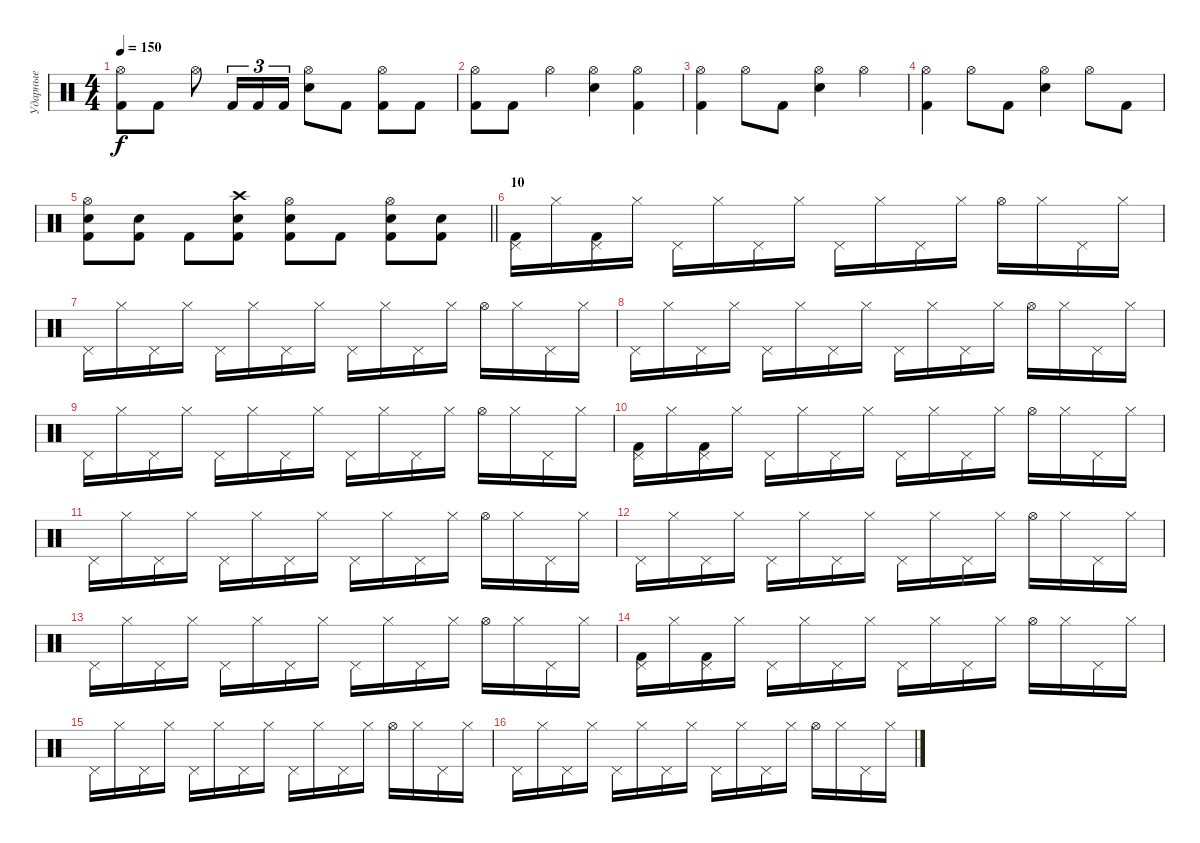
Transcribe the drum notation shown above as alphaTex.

\track ("Ударные" "Ударные") {mute instrument percussion}
\staff {score}
\articulation defaults
\ts (4 4)
\tempo 150
\clef neutral
\ks c
("Hi-Hat (open)" "Kick (hit) 2").8{dy f} "Kick (hit) 2".8 "Hi-Hat (open)".8 "Kick (hit) 2".16{tu (3 2)} "Kick (hit) 2".16{tu (3 2)} "Kick (hit) 2".16{tu (3 2)} ("Hi-Hat (open)" "Snare (hit) 2").8 "Kick (hit) 2".8 ("Hi-Hat (open)" "Kick (hit) 2").8 "Kick (hit) 2".8 |
("Hi-Hat (open)" "Kick (hit) 2").8 "Kick (hit) 2".8 "Hi-Hat (open)".4 ("Hi-Hat (open)" "Snare (hit) 2").4 ("Hi-Hat (open)" "Kick (hit) 2").4 |
("Hi-Hat (open)" "Kick (hit) 2").4 "Hi-Hat (open)".8 "Kick (hit) 2".8 ("Hi-Hat (open)" "Snare (hit) 2").4 "Hi-Hat (open)".4 |
("Hi-Hat (open)" "Kick (hit) 2").4 "Hi-Hat (open)".8 "Kick (hit) 2".8 ("Hi-Hat (open)" "Snare (hit) 2").4 "Hi-Hat (open)".8 "Kick (hit) 2".8 |
\barLineRight lightlight
("Hi-Hat (open)" "Snare (hit) 2" "Kick (hit) 2").8 ("Snare (hit) 2" "Kick (hit) 2").8 "Kick (hit) 2".8 ("Crash high (hit)" "Snare (hit) 2" "Kick (hit) 2").8 ("Hi-Hat (open)" "Snare (hit) 2" "Kick (hit) 2").8 "Kick (hit) 2".8 ("Hi-Hat (open)" "Snare (hit) 2" "Kick (hit) 2").8 ("Snare (hit) 2" "Kick (hit) 2").8 |
\section ("" "10")
("Pedal Hi-Hat (hit)" "Kick (hit) 2").16 "Hi-Hat (closed)".16 ("Pedal Hi-Hat (hit)" "Kick (hit) 2").16 "Hi-Hat (closed)".16 "Pedal Hi-Hat (hit)".16 "Hi-Hat (closed)".16 "Pedal Hi-Hat (hit)".16 "Hi-Hat (closed)".16 "Pedal Hi-Hat (hit)".16 "Hi-Hat (closed)".16 "Pedal Hi-Hat (hit)".16 "Hi-Hat (closed)".16 "Hi-Hat (open)".16 "Hi-Hat (closed)".16 "Pedal Hi-Hat (hit)".16 "Hi-Hat (closed)".16 |
"Pedal Hi-Hat (hit)".16 "Hi-Hat (closed)".16 "Pedal Hi-Hat (hit)".16 "Hi-Hat (closed)".16 "Pedal Hi-Hat (hit)".16 "Hi-Hat (closed)".16 "Pedal Hi-Hat (hit)".16 "Hi-Hat (closed)".16 "Pedal Hi-Hat (hit)".16 "Hi-Hat (closed)".16 "Pedal Hi-Hat (hit)".16 "Hi-Hat (closed)".16 "Hi-Hat (open)".16 "Hi-Hat (closed)".16 "Pedal Hi-Hat (hit)".16 "Hi-Hat (closed)".16 |
"Pedal Hi-Hat (hit)".16 "Hi-Hat (closed)".16 "Pedal Hi-Hat (hit)".16 "Hi-Hat (closed)".16 "Pedal Hi-Hat (hit)".16 "Hi-Hat (closed)".16 "Pedal Hi-Hat (hit)".16 "Hi-Hat (closed)".16 "Pedal Hi-Hat (hit)".16 "Hi-Hat (closed)".16 "Pedal Hi-Hat (hit)".16 "Hi-Hat (closed)".16 "Hi-Hat (open)".16 "Hi-Hat (closed)".16 "Pedal Hi-Hat (hit)".16 "Hi-Hat (closed)".16 |
"Pedal Hi-Hat (hit)".16 "Hi-Hat (closed)".16 "Pedal Hi-Hat (hit)".16 "Hi-Hat (closed)".16 "Pedal Hi-Hat (hit)".16 "Hi-Hat (closed)".16 "Pedal Hi-Hat (hit)".16 "Hi-Hat (closed)".16 "Pedal Hi-Hat (hit)".16 "Hi-Hat (closed)".16 "Pedal Hi-Hat (hit)".16 "Hi-Hat (closed)".16 "Hi-Hat (open)".16 "Hi-Hat (closed)".16 "Pedal Hi-Hat (hit)".16 "Hi-Hat (closed)".16 |
("Pedal Hi-Hat (hit)" "Kick (hit) 2").16 "Hi-Hat (closed)".16 ("Pedal Hi-Hat (hit)" "Kick (hit) 2").16 "Hi-Hat (closed)".16 "Pedal Hi-Hat (hit)".16 "Hi-Hat (closed)".16 "Pedal Hi-Hat (hit)".16 "Hi-Hat (closed)".16 "Pedal Hi-Hat (hit)".16 "Hi-Hat (closed)".16 "Pedal Hi-Hat (hit)".16 "Hi-Hat (closed)".16 "Hi-Hat (open)".16 "Hi-Hat (closed)".16 "Pedal Hi-Hat (hit)".16 "Hi-Hat (closed)".16 |
"Pedal Hi-Hat (hit)".16 "Hi-Hat (closed)".16 "Pedal Hi-Hat (hit)".16 "Hi-Hat (closed)".16 "Pedal Hi-Hat (hit)".16 "Hi-Hat (closed)".16 "Pedal Hi-Hat (hit)".16 "Hi-Hat (closed)".16 "Pedal Hi-Hat (hit)".16 "Hi-Hat (closed)".16 "Pedal Hi-Hat (hit)".16 "Hi-Hat (closed)".16 "Hi-Hat (open)".16 "Hi-Hat (closed)".16 "Pedal Hi-Hat (hit)".16 "Hi-Hat (closed)".16 |
"Pedal Hi-Hat (hit)".16 "Hi-Hat (closed)".16 "Pedal Hi-Hat (hit)".16 "Hi-Hat (closed)".16 "Pedal Hi-Hat (hit)".16 "Hi-Hat (closed)".16 "Pedal Hi-Hat (hit)".16 "Hi-Hat (closed)".16 "Pedal Hi-Hat (hit)".16 "Hi-Hat (closed)".16 "Pedal Hi-Hat (hit)".16 "Hi-Hat (closed)".16 "Hi-Hat (open)".16 "Hi-Hat (closed)".16 "Pedal Hi-Hat (hit)".16 "Hi-Hat (closed)".16 |
"Pedal Hi-Hat (hit)".16 "Hi-Hat (closed)".16 "Pedal Hi-Hat (hit)".16 "Hi-Hat (closed)".16 "Pedal Hi-Hat (hit)".16 "Hi-Hat (closed)".16 "Pedal Hi-Hat (hit)".16 "Hi-Hat (closed)".16 "Pedal Hi-Hat (hit)".16 "Hi-Hat (closed)".16 "Pedal Hi-Hat (hit)".16 "Hi-Hat (closed)".16 "Hi-Hat (open)".16 "Hi-Hat (closed)".16 "Pedal Hi-Hat (hit)".16 "Hi-Hat (closed)".16 |
("Pedal Hi-Hat (hit)" "Kick (hit) 2").16 "Hi-Hat (closed)".16 ("Pedal Hi-Hat (hit)" "Kick (hit) 2").16 "Hi-Hat (closed)".16 "Pedal Hi-Hat (hit)".16 "Hi-Hat (closed)".16 "Pedal Hi-Hat (hit)".16 "Hi-Hat (closed)".16 "Pedal Hi-Hat (hit)".16 "Hi-Hat (closed)".16 "Pedal Hi-Hat (hit)".16 "Hi-Hat (closed)".16 "Hi-Hat (open)".16 "Hi-Hat (closed)".16 "Pedal Hi-Hat (hit)".16 "Hi-Hat (closed)".16 |
"Pedal Hi-Hat (hit)".16 "Hi-Hat (closed)".16 "Pedal Hi-Hat (hit)".16 "Hi-Hat (closed)".16 "Pedal Hi-Hat (hit)".16 "Hi-Hat (closed)".16 "Pedal Hi-Hat (hit)".16 "Hi-Hat (closed)".16 "Pedal Hi-Hat (hit)".16 "Hi-Hat (closed)".16 "Pedal Hi-Hat (hit)".16 "Hi-Hat (closed)".16 "Hi-Hat (open)".16 "Hi-Hat (closed)".16 "Pedal Hi-Hat (hit)".16 "Hi-Hat (closed)".16 |
"Pedal Hi-Hat (hit)".16 "Hi-Hat (closed)".16 "Pedal Hi-Hat (hit)".16 "Hi-Hat (closed)".16 "Pedal Hi-Hat (hit)".16 "Hi-Hat (closed)".16 "Pedal Hi-Hat (hit)".16 "Hi-Hat (closed)".16 "Pedal Hi-Hat (hit)".16 "Hi-Hat (closed)".16 "Pedal Hi-Hat (hit)".16 "Hi-Hat (closed)".16 "Hi-Hat (open)".16 "Hi-Hat (closed)".16 "Pedal Hi-Hat (hit)".16 "Hi-Hat (closed)".16
